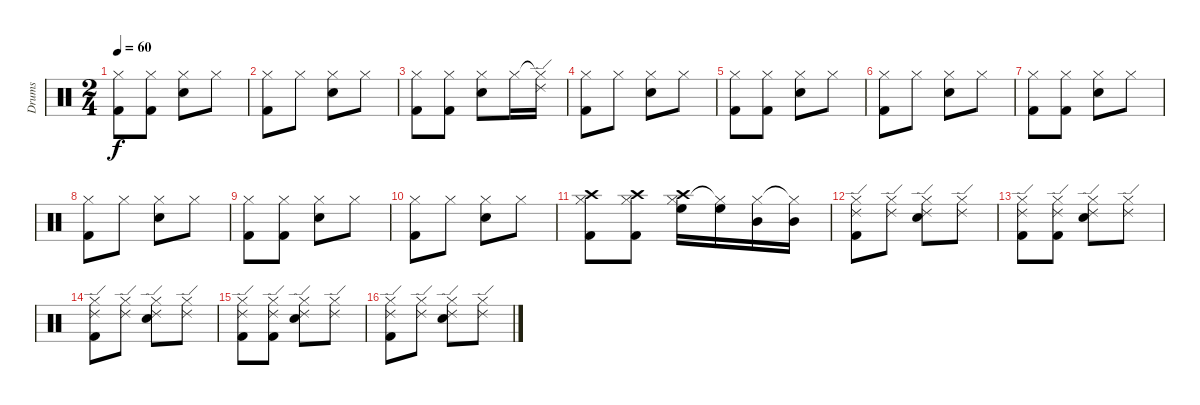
\track ("Drums" "Drums") {instrument percussion}
\staff {score}
\articulation defaults
\ts (2 4)
\tempo 60
\clef neutral
\ks c
("Hi-Hat (closed)" "Kick (hit) 2").8{dy f} ("Hi-Hat (closed)" "Kick (hit) 2").8 ("Hi-Hat (closed)" "Snare (hit) 2").8 "Hi-Hat (closed)".8 |
("Hi-Hat (closed)" "Kick (hit) 2").8 "Hi-Hat (closed)".8 ("Hi-Hat (closed)" "Snare (hit) 2").8 "Hi-Hat (closed)".8 |
("Hi-Hat (closed)" "Kick (hit) 2").8 ("Hi-Hat (closed)" "Kick (hit) 2").8 ("Hi-Hat (closed)" "Snare (hit) 2").8 "Hi-Hat (closed)".16 ("Hi-Hat (closed)"{t} "Ride (edge) 2").16 |
("Hi-Hat (closed)" "Kick (hit) 2").8 "Hi-Hat (closed)".8 ("Hi-Hat (closed)" "Snare (hit) 2").8 "Hi-Hat (closed)".8 |
("Hi-Hat (closed)" "Kick (hit) 2").8 ("Hi-Hat (closed)" "Kick (hit) 2").8 ("Hi-Hat (closed)" "Snare (hit) 2").8 "Hi-Hat (closed)".8 |
("Hi-Hat (closed)" "Kick (hit) 2").8 "Hi-Hat (closed)".8 ("Hi-Hat (closed)" "Snare (hit) 2").8 "Hi-Hat (closed)".8 |
("Hi-Hat (closed)" "Kick (hit) 2").8 ("Hi-Hat (closed)" "Kick (hit) 2").8 ("Hi-Hat (closed)" "Snare (hit) 2").8 "Hi-Hat (closed)".8 |
("Hi-Hat (closed)" "Kick (hit) 2").8 "Hi-Hat (closed)".8 ("Hi-Hat (closed)" "Snare (hit) 2").8 "Hi-Hat (closed)".8 |
("Hi-Hat (closed)" "Kick (hit) 2").8 ("Hi-Hat (closed)" "Kick (hit) 2").8 ("Hi-Hat (closed)" "Snare (hit) 2").8 "Hi-Hat (closed)".8 |
("Hi-Hat (closed)" "Kick (hit) 2").8 "Hi-Hat (closed)".8 ("Hi-Hat (closed)" "Snare (hit) 2").8 "Hi-Hat (closed)".8 |
("Hi-Hat (closed)" "Kick (hit) 2" "Crash high (hit)").8 ("Hi-Hat (closed)" "Kick (hit) 2" "Crash high (hit)").8 ("Hi-Hat (closed)" "High Floor Tom (hit)" "Crash high (hit)").16 ("Hi-Hat (closed)"{t} "High Floor Tom (hit)").16 ("Hi-Hat (closed)" "Mid Tom (hit)").16 ("Hi-Hat (closed)"{t} "Mid Tom (hit)").16 |
("Hi-Hat (closed)" "Kick (hit) 2" "Ride (edge) 2").8 ("Hi-Hat (closed)" "Ride (edge) 2").8 ("Hi-Hat (closed)" "Snare (hit) 2" "Ride (edge) 2").8 ("Hi-Hat (closed)" "Ride (edge) 2").8 |
("Hi-Hat (closed)" "Kick (hit) 2" "Ride (edge) 2").8 ("Hi-Hat (closed)" "Kick (hit) 2" "Ride (edge) 2").8 ("Hi-Hat (closed)" "Snare (hit) 2" "Ride (edge) 2").8 ("Hi-Hat (closed)" "Ride (edge) 2").8 |
("Hi-Hat (closed)" "Kick (hit) 2" "Ride (edge) 2").8 ("Hi-Hat (closed)" "Ride (edge) 2").8 ("Hi-Hat (closed)" "Snare (hit) 2" "Ride (edge) 2").8 ("Hi-Hat (closed)" "Ride (edge) 2").8 |
("Hi-Hat (closed)" "Kick (hit) 2" "Ride (edge) 2").8 ("Hi-Hat (closed)" "Kick (hit) 2" "Ride (edge) 2").8 ("Hi-Hat (closed)" "Snare (hit) 2" "Ride (edge) 2").8 ("Hi-Hat (closed)" "Ride (edge) 2").8 |
("Hi-Hat (closed)" "Kick (hit) 2" "Ride (edge) 2").8 ("Hi-Hat (closed)" "Ride (edge) 2").8 ("Hi-Hat (closed)" "Snare (hit) 2" "Ride (edge) 2").8 ("Hi-Hat (closed)" "Ride (edge) 2").8
